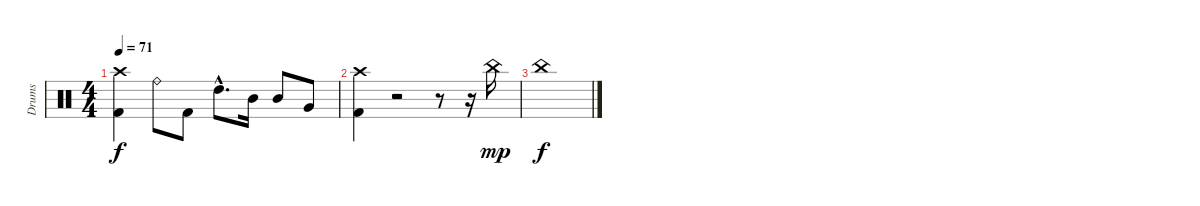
\track ("Drums" "Drums") {instrument percussion}
\staff {score}
\articulation defaults
\ts (4 4)
\tempo 71
\clef neutral
\ks c
("Crash high (hit)" "Kick (hit) 2").4{dy f} "Ride (bell)".8 "Kick (hit) 2".8 "High Tom (hit)"{hac}.8{d} "Mid Tom (hit)".16 "Mid Tom (hit)".8 "Very Low Tom (hit)".8 |
("Crash high (hit)" "Kick (hit) 2").4 r.2 r.8 r.16 "China (hit)".16{dy mp} |
"China (hit)".1{dy f}
